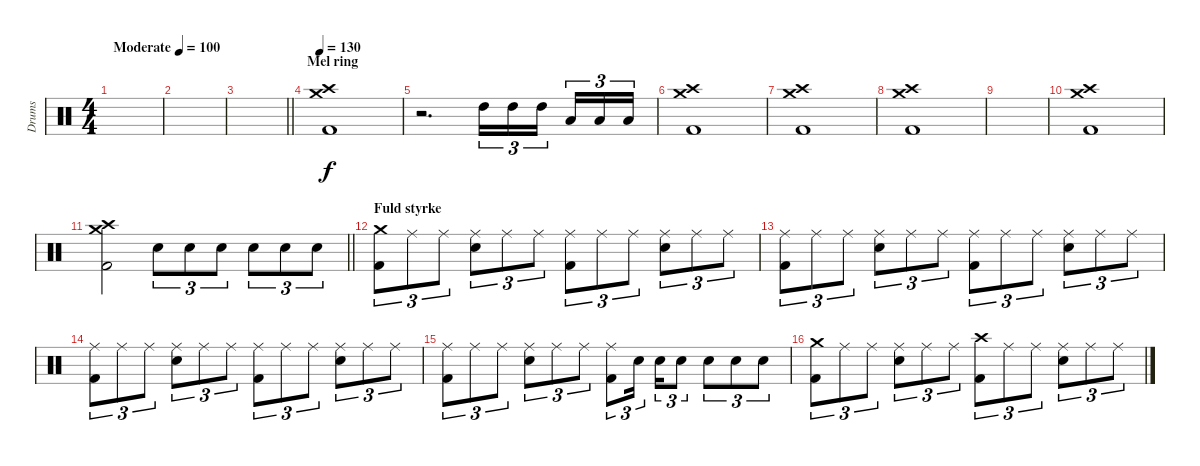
\track ("Drums" "Drums") {instrument percussion}
\staff {score}
\articulation defaults
\ts (4 4)
\tempo (100 "Moderate")
\clef neutral
\ks c
|
|
\barLineRight lightlight
|
\section ("" "Mel ring")
\tempo 130
("Crash medium (hit)" "Crash high (hit)" "Kick (hit) 2").1 |
r.2{d} "High Tom (hit)".16{tu (3 2)} "High Tom (hit)".16{tu (3 2)} "High Tom (hit)".16{tu (3 2) beam splitsecondary} "Low Tom (hit)".16{tu (3 2)} "Low Tom (hit)".16{tu (3 2)} "Low Tom (hit)".16{tu (3 2)} |
("Crash medium (hit)" "Crash high (hit)" "Kick (hit) 2").1 |
("Crash medium (hit)" "Crash high (hit)" "Kick (hit) 2").1 |
("Crash medium (hit)" "Crash high (hit)" "Kick (hit) 2").1 |
|
("Crash medium (hit)" "Crash high (hit)" "Kick (hit) 2").1 |
\barLineRight lightlight
("Crash medium (hit)" "Crash high (hit)" "Kick (hit) 2").2 "Snare (hit) 2".8{tu (3 2)} "Snare (hit) 2".8{tu (3 2)} "Snare (hit) 2".8{tu (3 2)} "Snare (hit) 2".8{tu (3 2)} "Snare (hit) 2".8{tu (3 2)} "Snare (hit) 2".8{tu (3 2)} |
\section ("" "Fuld styrke")
("Crash medium (hit)" "Kick (hit) 2").8{tu (3 2)} "Ride (middle)".8{tu (3 2)} "Ride (middle)".8{tu (3 2)} ("Ride (middle)" "Snare (hit) 2").8{tu (3 2)} "Ride (middle)".8{tu (3 2)} "Ride (middle)".8{tu (3 2)} ("Ride (middle)" "Kick (hit) 2").8{tu (3 2)} "Ride (middle)".8{tu (3 2)} "Ride (middle)".8{tu (3 2)} ("Ride (middle)" "Snare (hit) 2").8{tu (3 2)} "Ride (middle)".8{tu (3 2)} "Ride (middle)".8{tu (3 2)} |
("Ride (middle)" "Kick (hit) 2").8{tu (3 2)} "Ride (middle)".8{tu (3 2)} "Ride (middle)".8{tu (3 2)} ("Ride (middle)" "Snare (hit) 2").8{tu (3 2)} "Ride (middle)".8{tu (3 2)} "Ride (middle)".8{tu (3 2)} ("Ride (middle)" "Kick (hit) 2").8{tu (3 2)} "Ride (middle)".8{tu (3 2)} "Ride (middle)".8{tu (3 2)} ("Ride (middle)" "Snare (hit) 2").8{tu (3 2)} "Ride (middle)".8{tu (3 2)} "Ride (middle)".8{tu (3 2)} |
("Ride (middle)" "Kick (hit) 2").8{tu (3 2)} "Ride (middle)".8{tu (3 2)} "Ride (middle)".8{tu (3 2)} ("Ride (middle)" "Snare (hit) 2").8{tu (3 2)} "Ride (middle)".8{tu (3 2)} "Ride (middle)".8{tu (3 2)} ("Ride (middle)" "Kick (hit) 2").8{tu (3 2)} "Ride (middle)".8{tu (3 2)} "Ride (middle)".8{tu (3 2)} ("Ride (middle)" "Snare (hit) 2").8{tu (3 2)} "Ride (middle)".8{tu (3 2)} "Ride (middle)".8{tu (3 2)} |
("Ride (middle)" "Kick (hit) 2").8{tu (3 2)} "Ride (middle)".8{tu (3 2)} "Ride (middle)".8{tu (3 2)} ("Ride (middle)" "Snare (hit) 2").8{tu (3 2)} "Ride (middle)".8{tu (3 2)} "Ride (middle)".8{tu (3 2)} ("Ride (middle)" "Kick (hit) 2").8{tu (3 2)} "Snare (hit) 2".16{tu (3 2) beam splitsecondary} "Snare (hit) 2".16{tu (3 2)} "Snare (hit) 2".8{tu (3 2)} "Snare (hit) 2".8{tu (3 2)} "Snare (hit) 2".8{tu (3 2)} "Snare (hit) 2".8{tu (3 2)} |
("Crash medium (hit)" "Kick (hit) 2").8{tu (3 2)} "Ride (middle)".8{tu (3 2)} "Ride (middle)".8{tu (3 2)} ("Ride (middle)" "Snare (hit) 2").8{tu (3 2)} "Ride (middle)".8{tu (3 2)} "Ride (middle)".8{tu (3 2)} ("Crash high (hit)" "Kick (hit) 2").8{tu (3 2)} "Ride (middle)".8{tu (3 2)} "Ride (middle)".8{tu (3 2)} ("Ride (middle)" "Snare (hit) 2").8{tu (3 2)} "Ride (middle)".8{tu (3 2)} "Ride (middle)".8{tu (3 2)}
